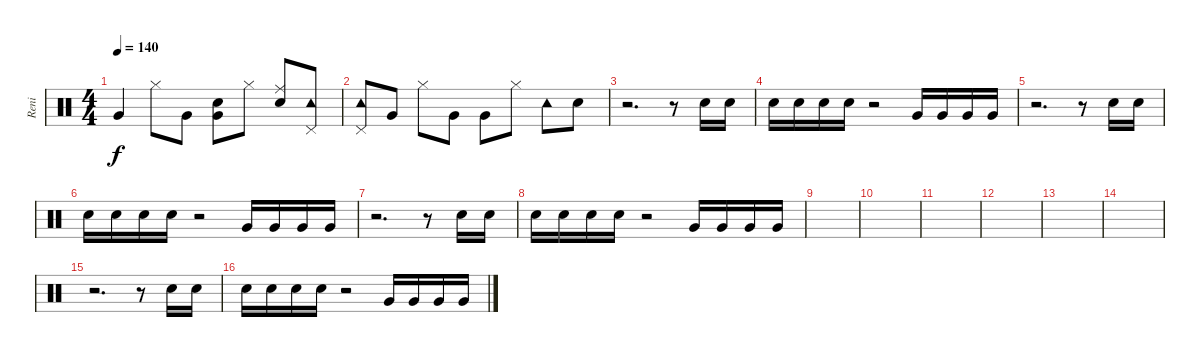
\track ("Reni" "Reni") {instrument percussion}
\staff {score}
\articulation defaults
\ts (4 4)
\tempo 140
\clef neutral
\ks c "Very Low Tom (hit)".4{dy f} "Hi-Hat (closed)".8 "Very Low Tom (hit)".8
("Snare (hit) 2" "Very Low Tom (hit)").8 "Hi-Hat (closed)".8 ("Ride (middle)" "Snare (hit) 2").8 ("Tambourine (hit)" "Pedal Hi-Hat (hit)").8 |
("Tambourine (hit)" "Pedal Hi-Hat (hit)").8 "Very Low Tom (hit)".8 "Hi-Hat (closed)".8 "Very Low Tom (hit)".8 "Very Low Tom (hit)".8 "Hi-Hat (closed)".8 "Tambourine (hit)".8 "Snare (hit) 2".8 |
r.2{d} r.8 "Snare (hit) 2".16 "Snare (hit) 2".16 |
"Snare (hit) 2".16 "Snare (hit) 2".16 "Snare (hit) 2".16 "Snare (hit) 2".16 r.2 "Very Low Tom (hit)".16 "Very Low Tom (hit)".16 "Very Low Tom (hit)".16 "Very Low Tom (hit)".16 |
r.2{d} r.8 "Snare (hit) 2".16 "Snare (hit) 2".16 |
"Snare (hit) 2".16 "Snare (hit) 2".16 "Snare (hit) 2".16 "Snare (hit) 2".16 r.2 "Very Low Tom (hit)".16 "Very Low Tom (hit)".16 "Very Low Tom (hit)".16 "Very Low Tom (hit)".16 |
r.2{d} r.8 "Snare (hit) 2".16 "Snare (hit) 2".16 |
"Snare (hit) 2".16 "Snare (hit) 2".16 "Snare (hit) 2".16 "Snare (hit) 2".16 r.2 "Very Low Tom (hit)".16 "Very Low Tom (hit)".16 "Very Low Tom (hit)".16 "Very Low Tom (hit)".16 |
|
|
|
|
|
|
r.2{d} r.8 "Snare (hit) 2".16 "Snare (hit) 2".16 |
"Snare (hit) 2".16 "Snare (hit) 2".16 "Snare (hit) 2".16 "Snare (hit) 2".16 r.2 "Very Low Tom (hit)".16 "Very Low Tom (hit)".16 "Very Low Tom (hit)".16 "Very Low Tom (hit)".16
